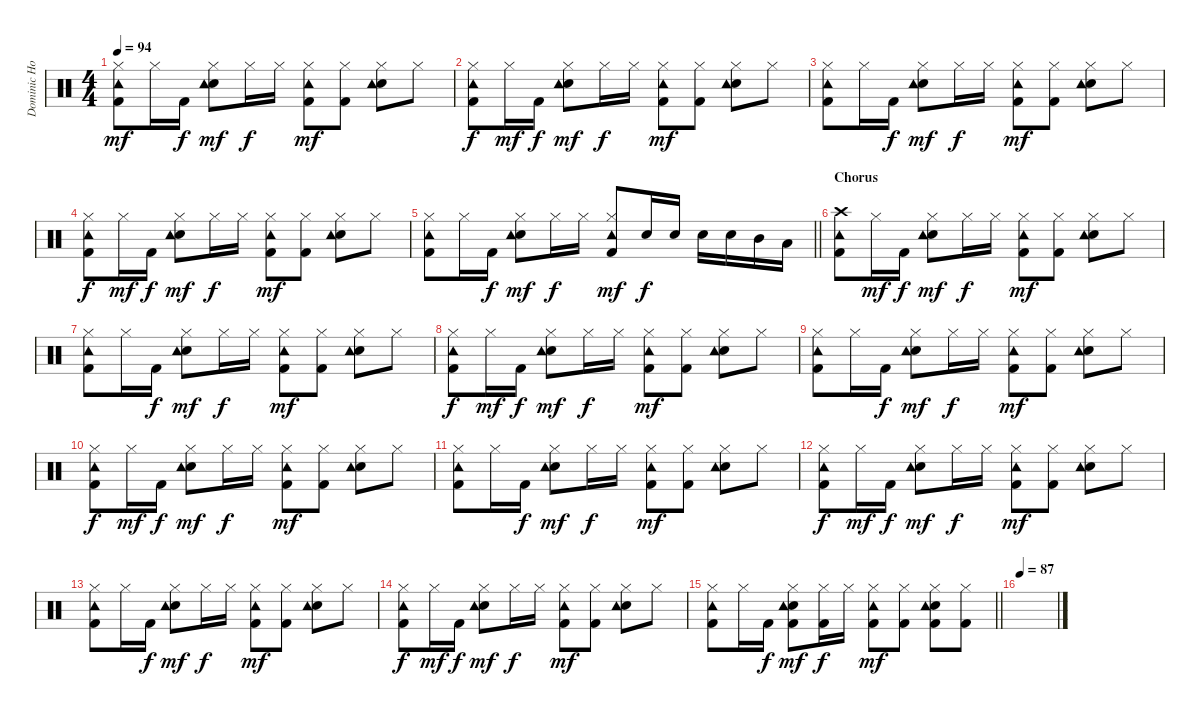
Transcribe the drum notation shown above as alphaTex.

\track ("Dominic Howard - Drums" "Dominic Ho") {instrument percussion}
\staff {score}
\articulation defaults
\ts (4 4)
\tempo 94
\clef neutral
\ks c
("Kick (hit) 2" "Hi-Hat (closed)" "Tambourine (hit)").8{dy mf} "Hi-Hat (closed)".16 "Kick (hit) 2".16{dy f} ("Hi-Hat (closed)" "Electric Snare (hit)" "Tambourine (hit)").8{dy mf} "Hi-Hat (closed)".16{dy f} "Hi-Hat (closed)".16 ("Hi-Hat (closed)" "Kick (hit) 2" "Tambourine (hit)").8{dy mf} ("Hi-Hat (closed)" "Kick (hit) 2").8 ("Hi-Hat (closed)" "Electric Snare (hit)" "Tambourine (hit)").8 "Hi-Hat (closed)".8 |
("Kick (hit) 2" "Hi-Hat (closed)" "Tambourine (hit)").8{dy f} "Hi-Hat (closed)".16{dy mf} "Kick (hit) 2".16{dy f} ("Hi-Hat (closed)" "Electric Snare (hit)" "Tambourine (hit)").8{dy mf} "Hi-Hat (closed)".16{dy f} "Hi-Hat (closed)".16 ("Hi-Hat (closed)" "Kick (hit) 2" "Tambourine (hit)").8{dy mf} ("Hi-Hat (closed)" "Kick (hit) 2").8 ("Hi-Hat (closed)" "Electric Snare (hit)" "Tambourine (hit)").8 "Hi-Hat (closed)".8 |
("Kick (hit) 2" "Hi-Hat (closed)" "Tambourine (hit)").8 "Hi-Hat (closed)".16 "Kick (hit) 2".16{dy f} ("Hi-Hat (closed)" "Electric Snare (hit)" "Tambourine (hit)").8{dy mf} "Hi-Hat (closed)".16{dy f} "Hi-Hat (closed)".16 ("Hi-Hat (closed)" "Kick (hit) 2" "Tambourine (hit)").8{dy mf} ("Hi-Hat (closed)" "Kick (hit) 2").8 ("Hi-Hat (closed)" "Electric Snare (hit)" "Tambourine (hit)").8 "Hi-Hat (closed)".8 |
("Kick (hit) 2" "Hi-Hat (closed)" "Tambourine (hit)").8{dy f} "Hi-Hat (closed)".16{dy mf} "Kick (hit) 2".16{dy f} ("Hi-Hat (closed)" "Electric Snare (hit)" "Tambourine (hit)").8{dy mf} "Hi-Hat (closed)".16{dy f} "Hi-Hat (closed)".16 ("Hi-Hat (closed)" "Kick (hit) 2" "Tambourine (hit)").8{dy mf} ("Hi-Hat (closed)" "Kick (hit) 2").8 ("Hi-Hat (closed)" "Electric Snare (hit)" "Tambourine (hit)").8 "Hi-Hat (closed)".8 |
\barLineRight lightlight
("Kick (hit) 2" "Hi-Hat (closed)" "Tambourine (hit)").8 "Hi-Hat (closed)".16 "Kick (hit) 2".16{dy f} ("Hi-Hat (closed)" "Electric Snare (hit)" "Tambourine (hit)").8{dy mf} "Hi-Hat (closed)".16{dy f} "Hi-Hat (closed)".16 ("Hi-Hat (closed)" "Kick (hit) 2" "Tambourine (hit)").8{dy mf} "Electric Snare (hit)".16{dy f} "Electric Snare (hit)".16 "Electric Snare (hit)".16 "Electric Snare (hit)".16 "Mid Tom (hit)".16 "Low Floor Tom (hit)".16 |
\section ("" "Chorus ")
("Kick (hit) 2" "Crash high (hit)" "Tambourine (hit)").8 "Hi-Hat (closed)".16{dy mf} "Kick (hit) 2".16{dy f} ("Hi-Hat (closed)" "Electric Snare (hit)" "Tambourine (hit)").8{dy mf} "Hi-Hat (closed)".16{dy f} "Hi-Hat (closed)".16 ("Hi-Hat (closed)" "Kick (hit) 2" "Tambourine (hit)").8{dy mf} ("Hi-Hat (closed)" "Kick (hit) 2").8 ("Hi-Hat (closed)" "Electric Snare (hit)" "Tambourine (hit)").8 "Hi-Hat (closed)".8 |
("Kick (hit) 2" "Hi-Hat (closed)" "Tambourine (hit)").8 "Hi-Hat (closed)".16 "Kick (hit) 2".16{dy f} ("Hi-Hat (closed)" "Electric Snare (hit)" "Tambourine (hit)").8{dy mf} "Hi-Hat (closed)".16{dy f} "Hi-Hat (closed)".16 ("Hi-Hat (closed)" "Kick (hit) 2" "Tambourine (hit)").8{dy mf} ("Hi-Hat (closed)" "Kick (hit) 2").8 ("Hi-Hat (closed)" "Electric Snare (hit)" "Tambourine (hit)").8 "Hi-Hat (closed)".8 |
("Kick (hit) 2" "Hi-Hat (closed)" "Tambourine (hit)").8{dy f} "Hi-Hat (closed)".16{dy mf} "Kick (hit) 2".16{dy f} ("Hi-Hat (closed)" "Electric Snare (hit)" "Tambourine (hit)").8{dy mf} "Hi-Hat (closed)".16{dy f} "Hi-Hat (closed)".16 ("Hi-Hat (closed)" "Kick (hit) 2" "Tambourine (hit)").8{dy mf} ("Hi-Hat (closed)" "Kick (hit) 2").8 ("Hi-Hat (closed)" "Electric Snare (hit)" "Tambourine (hit)").8 "Hi-Hat (closed)".8 |
("Kick (hit) 2" "Hi-Hat (closed)" "Tambourine (hit)").8 "Hi-Hat (closed)".16 "Kick (hit) 2".16{dy f} ("Hi-Hat (closed)" "Electric Snare (hit)" "Tambourine (hit)").8{dy mf} "Hi-Hat (closed)".16{dy f} "Hi-Hat (closed)".16 ("Hi-Hat (closed)" "Kick (hit) 2" "Tambourine (hit)").8{dy mf} ("Hi-Hat (closed)" "Kick (hit) 2").8 ("Hi-Hat (closed)" "Electric Snare (hit)" "Tambourine (hit)").8 "Hi-Hat (closed)".8 |
("Kick (hit) 2" "Hi-Hat (closed)" "Tambourine (hit)").8{dy f} "Hi-Hat (closed)".16{dy mf} "Kick (hit) 2".16{dy f} ("Hi-Hat (closed)" "Electric Snare (hit)" "Tambourine (hit)").8{dy mf} "Hi-Hat (closed)".16{dy f} "Hi-Hat (closed)".16 ("Hi-Hat (closed)" "Kick (hit) 2" "Tambourine (hit)").8{dy mf} ("Hi-Hat (closed)" "Kick (hit) 2").8 ("Hi-Hat (closed)" "Electric Snare (hit)" "Tambourine (hit)").8 "Hi-Hat (closed)".8 |
("Kick (hit) 2" "Hi-Hat (closed)" "Tambourine (hit)").8 "Hi-Hat (closed)".16 "Kick (hit) 2".16{dy f} ("Hi-Hat (closed)" "Electric Snare (hit)" "Tambourine (hit)").8{dy mf} "Hi-Hat (closed)".16{dy f} "Hi-Hat (closed)".16 ("Hi-Hat (closed)" "Kick (hit) 2" "Tambourine (hit)").8{dy mf} ("Hi-Hat (closed)" "Kick (hit) 2").8 ("Hi-Hat (closed)" "Electric Snare (hit)" "Tambourine (hit)").8 "Hi-Hat (closed)".8 |
("Kick (hit) 2" "Hi-Hat (closed)" "Tambourine (hit)").8{dy f} "Hi-Hat (closed)".16{dy mf} "Kick (hit) 2".16{dy f} ("Hi-Hat (closed)" "Electric Snare (hit)" "Tambourine (hit)").8{dy mf} "Hi-Hat (closed)".16{dy f} "Hi-Hat (closed)".16 ("Hi-Hat (closed)" "Kick (hit) 2" "Tambourine (hit)").8{dy mf} ("Hi-Hat (closed)" "Kick (hit) 2").8 ("Hi-Hat (closed)" "Electric Snare (hit)" "Tambourine (hit)").8 "Hi-Hat (closed)".8 |
("Kick (hit) 2" "Hi-Hat (closed)" "Tambourine (hit)").8 "Hi-Hat (closed)".16 "Kick (hit) 2".16{dy f} ("Hi-Hat (closed)" "Electric Snare (hit)" "Tambourine (hit)").8{dy mf} "Hi-Hat (closed)".16{dy f} "Hi-Hat (closed)".16 ("Hi-Hat (closed)" "Kick (hit) 2" "Tambourine (hit)").8{dy mf} ("Hi-Hat (closed)" "Kick (hit) 2").8 ("Hi-Hat (closed)" "Electric Snare (hit)" "Tambourine (hit)").8 "Hi-Hat (closed)".8 |
("Kick (hit) 2" "Hi-Hat (closed)" "Tambourine (hit)").8{dy f} "Hi-Hat (closed)".16{dy mf} "Kick (hit) 2".16{dy f} ("Hi-Hat (closed)" "Electric Snare (hit)" "Tambourine (hit)").8{dy mf} "Hi-Hat (closed)".16{dy f} "Hi-Hat (closed)".16 ("Hi-Hat (closed)" "Kick (hit) 2" "Tambourine (hit)").8{dy mf} ("Hi-Hat (closed)" "Kick (hit) 2").8 ("Hi-Hat (closed)" "Electric Snare (hit)" "Tambourine (hit)").8 "Hi-Hat (closed)".8 |
\barLineRight lightlight
("Kick (hit) 2" "Hi-Hat (closed)" "Tambourine (hit)").8 "Hi-Hat (closed)".16 "Kick (hit) 2".16{dy f} ("Hi-Hat (closed)" "Electric Snare (hit)" "Tambourine (hit)" "Kick (hit) 2").8{dy mf} ("Hi-Hat (closed)" "Kick (hit) 2").16{dy f} "Hi-Hat (closed)".16 ("Hi-Hat (closed)" "Kick (hit) 2" "Tambourine (hit)").8{dy mf} ("Hi-Hat (closed)" "Kick (hit) 2").8 ("Hi-Hat (closed)" "Electric Snare (hit)" "Tambourine (hit)" "Kick (hit) 2").8 ("Hi-Hat (closed)" "Kick (hit) 2").8 |
\tempo 87
